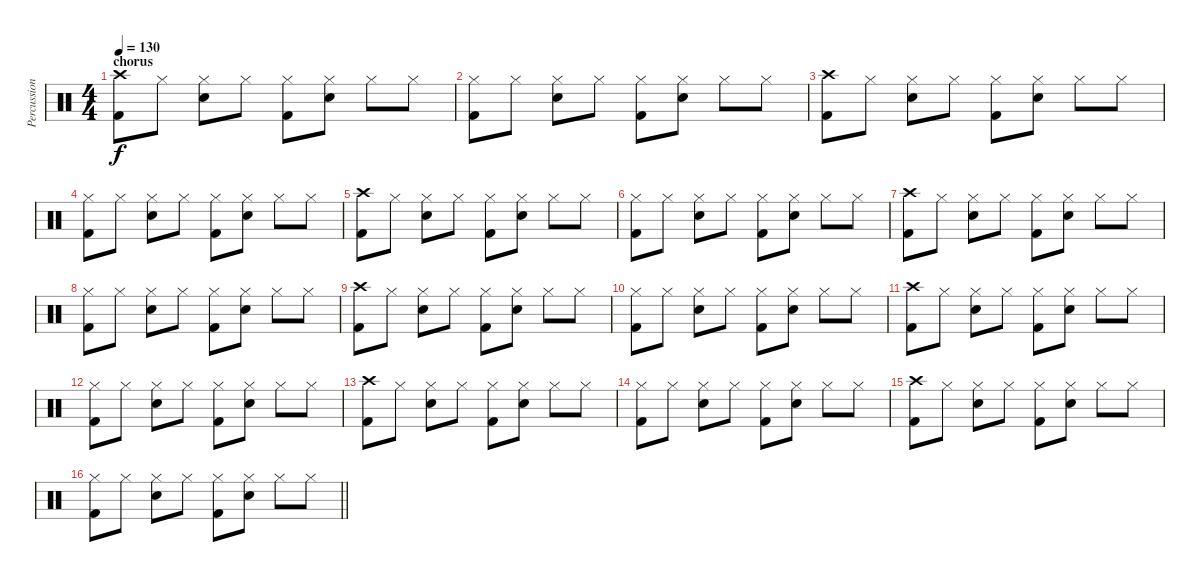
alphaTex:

\track ("Percussion" "Percussion") {instrument percussion}
\staff {score}
\articulation defaults
\ts (4 4)
\section ("" "chorus")
\tempo 130
\clef neutral
\ks c
("Crash high (hit)" "Kick (hit) 2").8{dy f} "Hi-Hat (closed)".8 ("Hi-Hat (closed)" "Snare (hit) 2").8 "Hi-Hat (closed)".8 ("Hi-Hat (closed)" "Kick (hit) 2").8 ("Hi-Hat (closed)" "Snare (hit) 2").8 "Hi-Hat (closed)".8 "Hi-Hat (closed)".8 |
("Hi-Hat (closed)" "Kick (hit) 2").8 "Hi-Hat (closed)".8 ("Hi-Hat (closed)" "Snare (hit) 2").8 "Hi-Hat (closed)".8 ("Hi-Hat (closed)" "Kick (hit) 2").8 ("Hi-Hat (closed)" "Snare (hit) 2").8 "Hi-Hat (closed)".8 "Hi-Hat (closed)".8 |
("Crash high (hit)" "Kick (hit) 2").8 "Hi-Hat (closed)".8 ("Hi-Hat (closed)" "Snare (hit) 2").8 "Hi-Hat (closed)".8 ("Hi-Hat (closed)" "Kick (hit) 2").8 ("Hi-Hat (closed)" "Snare (hit) 2").8 "Hi-Hat (closed)".8 "Hi-Hat (closed)".8 |
("Hi-Hat (closed)" "Kick (hit) 2").8 "Hi-Hat (closed)".8 ("Hi-Hat (closed)" "Snare (hit) 2").8 "Hi-Hat (closed)".8 ("Hi-Hat (closed)" "Kick (hit) 2").8 ("Hi-Hat (closed)" "Snare (hit) 2").8 "Hi-Hat (closed)".8 "Hi-Hat (closed)".8 |
("Crash high (hit)" "Kick (hit) 2").8 "Hi-Hat (closed)".8 ("Hi-Hat (closed)" "Snare (hit) 2").8 "Hi-Hat (closed)".8 ("Hi-Hat (closed)" "Kick (hit) 2").8 ("Hi-Hat (closed)" "Snare (hit) 2").8 "Hi-Hat (closed)".8 "Hi-Hat (closed)".8 |
("Hi-Hat (closed)" "Kick (hit) 2").8 "Hi-Hat (closed)".8 ("Hi-Hat (closed)" "Snare (hit) 2").8 "Hi-Hat (closed)".8 ("Hi-Hat (closed)" "Kick (hit) 2").8 ("Hi-Hat (closed)" "Snare (hit) 2").8 "Hi-Hat (closed)".8 "Hi-Hat (closed)".8 |
("Crash high (hit)" "Kick (hit) 2").8 "Hi-Hat (closed)".8 ("Hi-Hat (closed)" "Snare (hit) 2").8 "Hi-Hat (closed)".8 ("Hi-Hat (closed)" "Kick (hit) 2").8 ("Hi-Hat (closed)" "Snare (hit) 2").8 "Hi-Hat (closed)".8 "Hi-Hat (closed)".8 |
("Hi-Hat (closed)" "Kick (hit) 2").8 "Hi-Hat (closed)".8 ("Hi-Hat (closed)" "Snare (hit) 2").8 "Hi-Hat (closed)".8 ("Hi-Hat (closed)" "Kick (hit) 2").8 ("Hi-Hat (closed)" "Snare (hit) 2").8 "Hi-Hat (closed)".8 "Hi-Hat (closed)".8 |
("Crash high (hit)" "Kick (hit) 2").8 "Hi-Hat (closed)".8 ("Hi-Hat (closed)" "Snare (hit) 2").8 "Hi-Hat (closed)".8 ("Hi-Hat (closed)" "Kick (hit) 2").8 ("Hi-Hat (closed)" "Snare (hit) 2").8 "Hi-Hat (closed)".8 "Hi-Hat (closed)".8 |
("Hi-Hat (closed)" "Kick (hit) 2").8 "Hi-Hat (closed)".8 ("Hi-Hat (closed)" "Snare (hit) 2").8 "Hi-Hat (closed)".8 ("Hi-Hat (closed)" "Kick (hit) 2").8 ("Hi-Hat (closed)" "Snare (hit) 2").8 "Hi-Hat (closed)".8 "Hi-Hat (closed)".8 |
("Crash high (hit)" "Kick (hit) 2").8 "Hi-Hat (closed)".8 ("Hi-Hat (closed)" "Snare (hit) 2").8 "Hi-Hat (closed)".8 ("Hi-Hat (closed)" "Kick (hit) 2").8 ("Hi-Hat (closed)" "Snare (hit) 2").8 "Hi-Hat (closed)".8 "Hi-Hat (closed)".8 |
("Hi-Hat (closed)" "Kick (hit) 2").8 "Hi-Hat (closed)".8 ("Hi-Hat (closed)" "Snare (hit) 2").8 "Hi-Hat (closed)".8 ("Hi-Hat (closed)" "Kick (hit) 2").8 ("Hi-Hat (closed)" "Snare (hit) 2").8 "Hi-Hat (closed)".8 "Hi-Hat (closed)".8 |
("Crash high (hit)" "Kick (hit) 2").8 "Hi-Hat (closed)".8 ("Hi-Hat (closed)" "Snare (hit) 2").8 "Hi-Hat (closed)".8 ("Hi-Hat (closed)" "Kick (hit) 2").8 ("Hi-Hat (closed)" "Snare (hit) 2").8 "Hi-Hat (closed)".8 "Hi-Hat (closed)".8 |
("Hi-Hat (closed)" "Kick (hit) 2").8 "Hi-Hat (closed)".8 ("Hi-Hat (closed)" "Snare (hit) 2").8 "Hi-Hat (closed)".8 ("Hi-Hat (closed)" "Kick (hit) 2").8 ("Hi-Hat (closed)" "Snare (hit) 2").8 "Hi-Hat (closed)".8 "Hi-Hat (closed)".8 |
("Crash high (hit)" "Kick (hit) 2").8 "Hi-Hat (closed)".8 ("Hi-Hat (closed)" "Snare (hit) 2").8 "Hi-Hat (closed)".8 ("Hi-Hat (closed)" "Kick (hit) 2").8 ("Hi-Hat (closed)" "Snare (hit) 2").8 "Hi-Hat (closed)".8 "Hi-Hat (closed)".8 |
\barLineRight lightlight
("Hi-Hat (closed)" "Kick (hit) 2").8 "Hi-Hat (closed)".8 ("Hi-Hat (closed)" "Snare (hit) 2").8 "Hi-Hat (closed)".8 ("Hi-Hat (closed)" "Kick (hit) 2").8 ("Hi-Hat (closed)" "Snare (hit) 2").8 "Hi-Hat (closed)".8 "Hi-Hat (closed)".8
